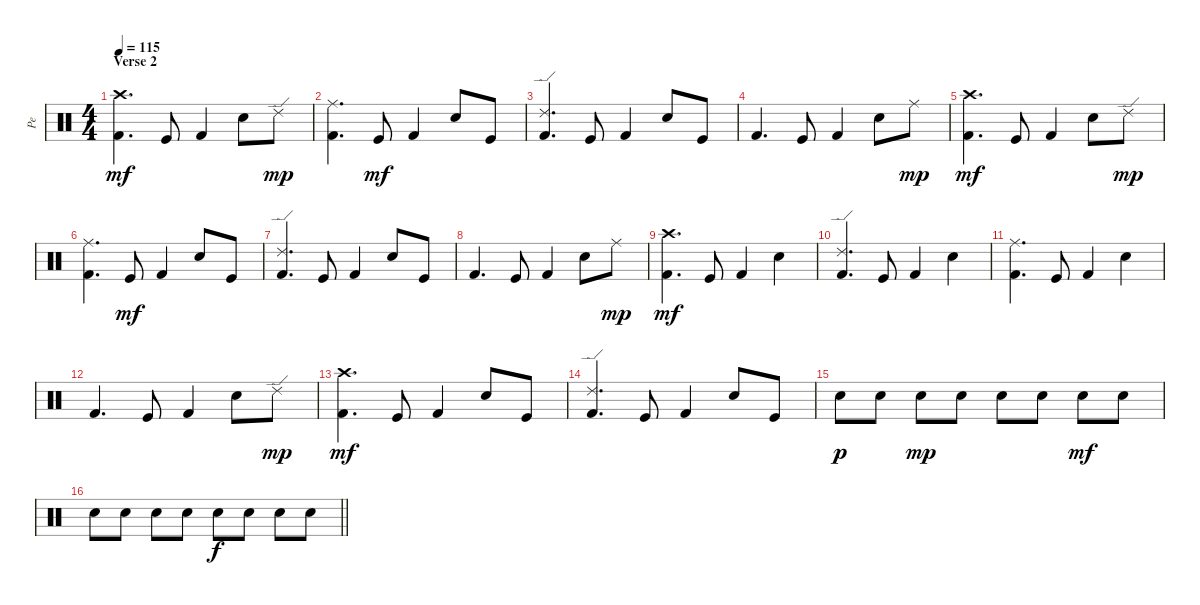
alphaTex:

\track ("Pe" "Pe") {instrument percussion}
\staff {score}
\articulation defaults
\ts (4 4)
\section ("" "Verse 2")
\tempo 115
\clef neutral
\ks c
("Kick (hit) 2" "Crash high (hit)").4{d dy mf} "Kick (hit)".8 "Kick (hit) 2".4 "Electric Snare (hit)".8 "Ride (edge) 2".8{dy mp} |
("Kick (hit) 2" "Ride (middle)").4{d} "Kick (hit)".8{dy mf} "Kick (hit) 2".4 "Electric Snare (hit)".8 "Kick (hit)".8 |
("Kick (hit) 2" "Ride (edge) 2").4{d} "Kick (hit)".8 "Kick (hit) 2".4 "Electric Snare (hit)".8 "Kick (hit)".8 |
"Kick (hit) 2".4{d} "Kick (hit)".8 "Kick (hit) 2".4 "Electric Snare (hit)".8 "Ride (middle)".8{dy mp} |
("Kick (hit) 2" "Crash high (hit)").4{d dy mf} "Kick (hit)".8 "Kick (hit) 2".4 "Electric Snare (hit)".8 "Ride (edge) 2".8{dy mp} |
("Kick (hit) 2" "Ride (middle)").4{d} "Kick (hit)".8{dy mf} "Kick (hit) 2".4 "Electric Snare (hit)".8 "Kick (hit)".8 |
("Kick (hit) 2" "Ride (edge) 2").4{d} "Kick (hit)".8 "Kick (hit) 2".4 "Electric Snare (hit)".8 "Kick (hit)".8 |
"Kick (hit) 2".4{d} "Kick (hit)".8 "Kick (hit) 2".4 "Electric Snare (hit)".8 "Ride (middle)".8{dy mp} |
("Kick (hit) 2" "Crash high (hit)").4{d dy mf} "Kick (hit)".8 "Kick (hit) 2".4 "Electric Snare (hit)".4 |
("Kick (hit) 2" "Ride (edge) 2").4{d} "Kick (hit)".8 "Kick (hit) 2".4 "Electric Snare (hit)".4 |
("Kick (hit) 2" "Ride (middle)").4{d} "Kick (hit)".8 "Kick (hit) 2".4 "Electric Snare (hit)".4 |
"Kick (hit) 2".4{d} "Kick (hit)".8 "Kick (hit) 2".4 "Electric Snare (hit)".8 "Ride (edge) 2".8{dy mp} |
("Kick (hit) 2" "Crash high (hit)").4{d dy mf} "Kick (hit)".8 "Kick (hit) 2".4 "Electric Snare (hit)".8 "Kick (hit)".8 |
("Kick (hit) 2" "Ride (edge) 2").4{d} "Kick (hit)".8 "Kick (hit) 2".4 "Electric Snare (hit)".8 "Kick (hit)".8 |
"Electric Snare (hit)".8{dy p} "Electric Snare (hit)".8 "Electric Snare (hit)".8{dy mp} "Electric Snare (hit)".8 "Electric Snare (hit)".8 "Electric Snare (hit)".8 "Electric Snare (hit)".8{dy mf} "Electric Snare (hit)".8 |
\barLineRight lightlight "Electric Snare (hit)".8 "Electric Snare (hit)".8 "Electric Snare (hit)".8 "Electric Snare (hit)".8 "Electric Snare (hit)".8{dy f} "Electric Snare (hit)".8 "Electric Snare (hit)".8 "Electric Snare (hit)".8
